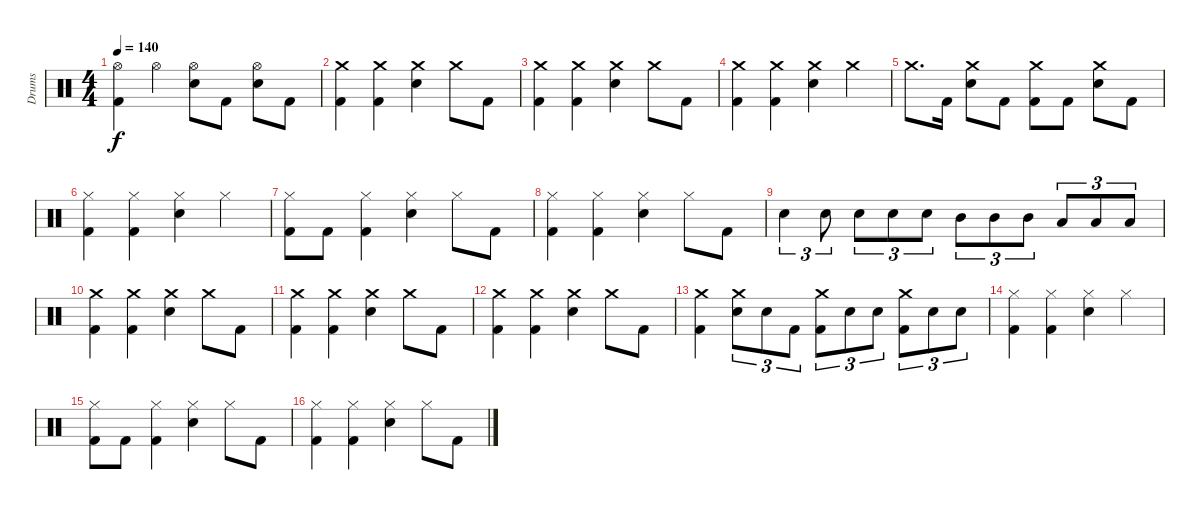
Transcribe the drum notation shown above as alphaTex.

\track ("Drums" "Drums") {instrument percussion}
\staff {score}
\articulation defaults
\ts (4 4)
\tempo 140
\clef neutral
\ks c
("Kick (hit) 2" "Hi-Hat (open)").4{dy f} "Hi-Hat (open)".4 ("Snare (hit) 2" "Hi-Hat (open)").8 "Kick (hit) 2".8 ("Snare (hit) 2" "Hi-Hat (open)").8 "Kick (hit) 2".8 |
("Crash medium (hit)" "Kick (hit) 2").4 ("Crash medium (hit)" "Kick (hit) 2").4 ("Crash medium (hit)" "Snare (hit) 2").4 "Crash medium (hit)".8 "Kick (hit) 2".8 |
("Crash medium (hit)" "Kick (hit) 2").4 ("Crash medium (hit)" "Kick (hit) 2").4 ("Crash medium (hit)" "Snare (hit) 2").4 "Crash medium (hit)".8 "Kick (hit) 2".8 |
("Crash medium (hit)" "Kick (hit) 2").4 ("Crash medium (hit)" "Kick (hit) 2").4 ("Crash medium (hit)" "Snare (hit) 2").4 "Crash medium (hit)".4 |
"Crash medium (hit)".8{d} "Kick (hit) 2".16 ("Crash medium (hit)" "Snare (hit) 2").8 "Kick (hit) 2".8 ("Crash medium (hit)" "Kick (hit) 2").8 "Kick (hit) 2".8 ("Crash medium (hit)" "Snare (hit) 2").8 "Kick (hit) 2".8 |
("Kick (hit) 2" "Hi-Hat (closed)").4 ("Kick (hit) 2" "Hi-Hat (closed)").4 ("Snare (hit) 2" "Hi-Hat (closed)").4 "Hi-Hat (closed)".4 |
("Kick (hit) 2" "Hi-Hat (closed)").8 "Kick (hit) 2".8 ("Kick (hit) 2" "Hi-Hat (closed)").4 ("Snare (hit) 2" "Hi-Hat (closed)").4 "Hi-Hat (closed)".8 "Kick (hit) 2".8 |
("Kick (hit) 2" "Hi-Hat (closed)").4 ("Kick (hit) 2" "Hi-Hat (closed)").4 ("Snare (hit) 2" "Hi-Hat (closed)").4 "Hi-Hat (closed)".8 "Kick (hit) 2".8 |
"Snare (hit) 2".4{tu (3 2)} "Snare (hit) 2".8{tu (3 2)} "Snare (hit) 2".8{tu (3 2)} "Snare (hit) 2".8{tu (3 2)} "Snare (hit) 2".8{tu (3 2)} "Mid Tom (hit)".8{tu (3 2)} "Mid Tom (hit)".8{tu (3 2)} "Mid Tom (hit)".8{tu (3 2)} "Low Tom (hit)".8{tu (3 2)} "Low Tom (hit)".8{tu (3 2)} "Low Tom (hit)".8{tu (3 2)} |
("Crash medium (hit)" "Kick (hit) 2").4 ("Crash medium (hit)" "Kick (hit) 2").4 ("Crash medium (hit)" "Snare (hit) 2").4 "Crash medium (hit)".8 "Kick (hit) 2".8 |
("Crash medium (hit)" "Kick (hit) 2").4 ("Crash medium (hit)" "Kick (hit) 2").4 ("Crash medium (hit)" "Snare (hit) 2").4 "Crash medium (hit)".8 "Kick (hit) 2".8 |
("Crash medium (hit)" "Kick (hit) 2").4 ("Crash medium (hit)" "Kick (hit) 2").4 ("Crash medium (hit)" "Snare (hit) 2").4 "Crash medium (hit)".8 "Kick (hit) 2".8 |
("Crash medium (hit)" "Kick (hit) 2").4 ("Crash medium (hit)" "Snare (hit) 2").8{tu (3 2)} "Snare (hit) 2".8{tu (3 2)} "Kick (hit) 2".8{tu (3 2)} ("Crash medium (hit)" "Kick (hit) 2").8{tu (3 2)} "Snare (hit) 2".8{tu (3 2)} "Snare (hit) 2".8{tu (3 2)} ("Crash medium (hit)" "Kick (hit) 2").8{tu (3 2)} "Snare (hit) 2".8{tu (3 2)} "Snare (hit) 2".8{tu (3 2)} |
("Kick (hit) 2" "Hi-Hat (closed)").4 ("Kick (hit) 2" "Hi-Hat (closed)").4 ("Snare (hit) 2" "Hi-Hat (closed)").4 "Hi-Hat (closed)".4 |
("Kick (hit) 2" "Hi-Hat (closed)").8 "Kick (hit) 2".8 ("Kick (hit) 2" "Hi-Hat (closed)").4 ("Snare (hit) 2" "Hi-Hat (closed)").4 "Hi-Hat (closed)".8 "Kick (hit) 2".8 |
("Kick (hit) 2" "Hi-Hat (closed)").4 ("Kick (hit) 2" "Hi-Hat (closed)").4 ("Snare (hit) 2" "Hi-Hat (closed)").4 "Hi-Hat (closed)".8 "Kick (hit) 2".8
